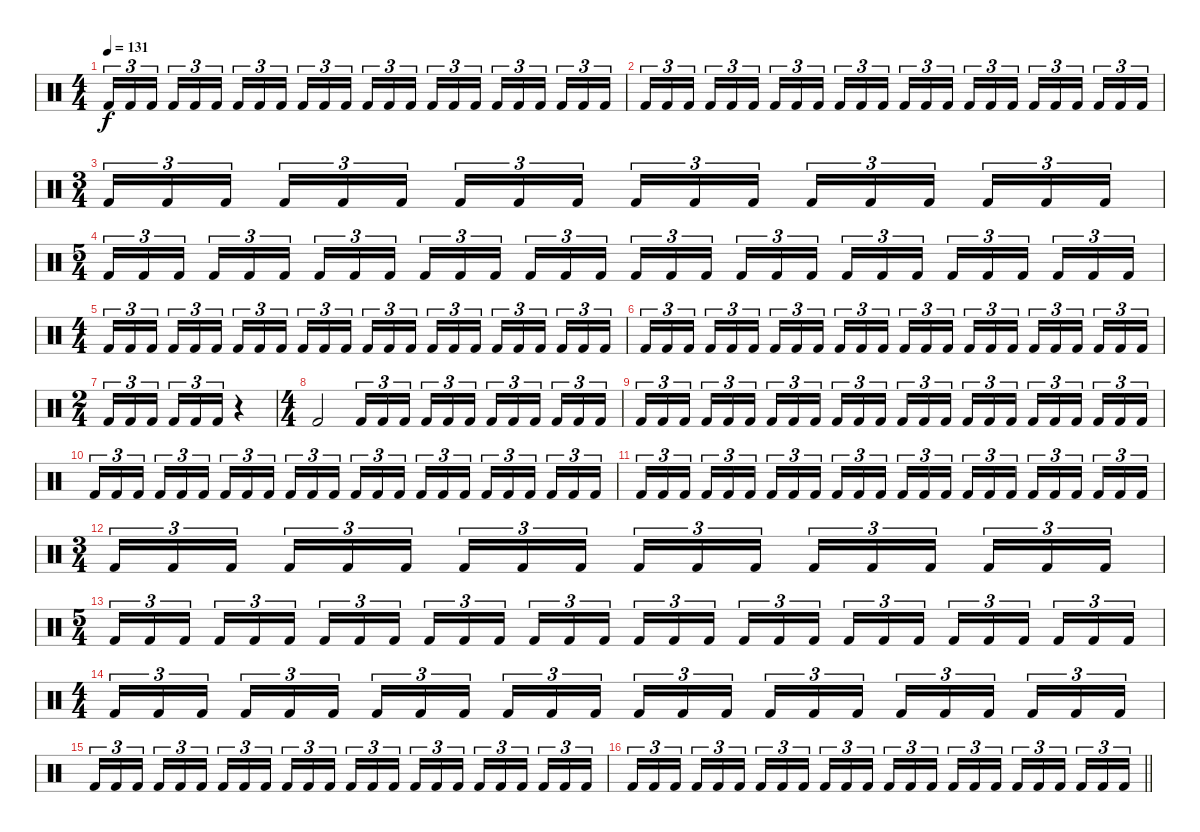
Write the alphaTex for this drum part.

\track "" {instrument percussion}
\staff {score}
\articulation defaults
\ts (4 4)
\tempo 131
\clef neutral
\ks c "Kick (hit) 2".16{tu (3 2) dy f} "Kick (hit) 2".16{tu (3 2)} "Kick (hit) 2".16{tu (3 2) beam splitsecondary} "Kick (hit) 2".16{tu (3 2)} "Kick (hit) 2".16{tu (3 2)} "Kick (hit) 2".16{tu (3 2)} "Kick (hit) 2".16{tu (3 2)} "Kick (hit) 2".16{tu (3 2)} "Kick (hit) 2".16{tu (3 2) beam splitsecondary} "Kick (hit) 2".16{tu (3 2)} "Kick (hit) 2".16{tu (3 2)} "Kick (hit) 2".16{tu (3 2)} "Kick (hit) 2".16{tu (3 2)} "Kick (hit) 2".16{tu (3 2)} "Kick (hit) 2".16{tu (3 2) beam splitsecondary} "Kick (hit) 2".16{tu (3 2)} "Kick (hit) 2".16{tu (3 2)} "Kick (hit) 2".16{tu (3 2)} "Kick (hit) 2".16{tu (3 2)} "Kick (hit) 2".16{tu (3 2)} "Kick (hit) 2".16{tu (3 2) beam splitsecondary} "Kick (hit) 2".16{tu (3 2)} "Kick (hit) 2".16{tu (3 2)} "Kick (hit) 2".16{tu (3 2)}
|
"Kick (hit) 2".16{tu (3 2)} "Kick (hit) 2".16{tu (3 2)} "Kick (hit) 2".16{tu (3 2) beam splitsecondary} "Kick (hit) 2".16{tu (3 2)} "Kick (hit) 2".16{tu (3 2)} "Kick (hit) 2".16{tu (3 2)} "Kick (hit) 2".16{tu (3 2)} "Kick (hit) 2".16{tu (3 2)} "Kick (hit) 2".16{tu (3 2) beam splitsecondary} "Kick (hit) 2".16{tu (3 2)} "Kick (hit) 2".16{tu (3 2)} "Kick (hit) 2".16{tu (3 2)} "Kick (hit) 2".16{tu (3 2)} "Kick (hit) 2".16{tu (3 2)} "Kick (hit) 2".16{tu (3 2) beam splitsecondary} "Kick (hit) 2".16{tu (3 2)} "Kick (hit) 2".16{tu (3 2)} "Kick (hit) 2".16{tu (3 2)} "Kick (hit) 2".16{tu (3 2)} "Kick (hit) 2".16{tu (3 2)} "Kick (hit) 2".16{tu (3 2) beam splitsecondary} "Kick (hit) 2".16{tu (3 2)} "Kick (hit) 2".16{tu (3 2)} "Kick (hit) 2".16{tu (3 2)} |
\ts (3 4)
"Kick (hit) 2".16{tu (3 2)} "Kick (hit) 2".16{tu (3 2)} "Kick (hit) 2".16{tu (3 2) beam splitsecondary} "Kick (hit) 2".16{tu (3 2)} "Kick (hit) 2".16{tu (3 2)} "Kick (hit) 2".16{tu (3 2)} "Kick (hit) 2".16{tu (3 2)} "Kick (hit) 2".16{tu (3 2)} "Kick (hit) 2".16{tu (3 2) beam splitsecondary} "Kick (hit) 2".16{tu (3 2)} "Kick (hit) 2".16{tu (3 2)} "Kick (hit) 2".16{tu (3 2)} "Kick (hit) 2".16{tu (3 2)} "Kick (hit) 2".16{tu (3 2)} "Kick (hit) 2".16{tu (3 2) beam splitsecondary} "Kick (hit) 2".16{tu (3 2)} "Kick (hit) 2".16{tu (3 2)} "Kick (hit) 2".16{tu (3 2)} |
\ts (5 4)
"Kick (hit) 2".16{tu (3 2)} "Kick (hit) 2".16{tu (3 2)} "Kick (hit) 2".16{tu (3 2) beam splitsecondary} "Kick (hit) 2".16{tu (3 2)} "Kick (hit) 2".16{tu (3 2)} "Kick (hit) 2".16{tu (3 2)} "Kick (hit) 2".16{tu (3 2)} "Kick (hit) 2".16{tu (3 2)} "Kick (hit) 2".16{tu (3 2) beam splitsecondary} "Kick (hit) 2".16{tu (3 2)} "Kick (hit) 2".16{tu (3 2)} "Kick (hit) 2".16{tu (3 2)} "Kick (hit) 2".16{tu (3 2)} "Kick (hit) 2".16{tu (3 2)} "Kick (hit) 2".16{tu (3 2) beam splitsecondary} "Kick (hit) 2".16{tu (3 2)} "Kick (hit) 2".16{tu (3 2)} "Kick (hit) 2".16{tu (3 2)} "Kick (hit) 2".16{tu (3 2)} "Kick (hit) 2".16{tu (3 2)} "Kick (hit) 2".16{tu (3 2) beam splitsecondary} "Kick (hit) 2".16{tu (3 2)} "Kick (hit) 2".16{tu (3 2)} "Kick (hit) 2".16{tu (3 2)} "Kick (hit) 2".16{tu (3 2)} "Kick (hit) 2".16{tu (3 2)} "Kick (hit) 2".16{tu (3 2) beam splitsecondary} "Kick (hit) 2".16{tu (3 2)} "Kick (hit) 2".16{tu (3 2)} "Kick (hit) 2".16{tu (3 2)} |
\ts (4 4)
"Kick (hit) 2".16{tu (3 2)} "Kick (hit) 2".16{tu (3 2)} "Kick (hit) 2".16{tu (3 2) beam splitsecondary} "Kick (hit) 2".16{tu (3 2)} "Kick (hit) 2".16{tu (3 2)} "Kick (hit) 2".16{tu (3 2)} "Kick (hit) 2".16{tu (3 2)} "Kick (hit) 2".16{tu (3 2)} "Kick (hit) 2".16{tu (3 2) beam splitsecondary} "Kick (hit) 2".16{tu (3 2)} "Kick (hit) 2".16{tu (3 2)} "Kick (hit) 2".16{tu (3 2)} "Kick (hit) 2".16{tu (3 2)} "Kick (hit) 2".16{tu (3 2)} "Kick (hit) 2".16{tu (3 2) beam splitsecondary} "Kick (hit) 2".16{tu (3 2)} "Kick (hit) 2".16{tu (3 2)} "Kick (hit) 2".16{tu (3 2)} "Kick (hit) 2".16{tu (3 2)} "Kick (hit) 2".16{tu (3 2)} "Kick (hit) 2".16{tu (3 2) beam splitsecondary} "Kick (hit) 2".16{tu (3 2)} "Kick (hit) 2".16{tu (3 2)} "Kick (hit) 2".16{tu (3 2)} |
"Kick (hit) 2".16{tu (3 2)} "Kick (hit) 2".16{tu (3 2)} "Kick (hit) 2".16{tu (3 2) beam splitsecondary} "Kick (hit) 2".16{tu (3 2)} "Kick (hit) 2".16{tu (3 2)} "Kick (hit) 2".16{tu (3 2)} "Kick (hit) 2".16{tu (3 2)} "Kick (hit) 2".16{tu (3 2)} "Kick (hit) 2".16{tu (3 2) beam splitsecondary} "Kick (hit) 2".16{tu (3 2)} "Kick (hit) 2".16{tu (3 2)} "Kick (hit) 2".16{tu (3 2)} "Kick (hit) 2".16{tu (3 2)} "Kick (hit) 2".16{tu (3 2)} "Kick (hit) 2".16{tu (3 2) beam splitsecondary} "Kick (hit) 2".16{tu (3 2)} "Kick (hit) 2".16{tu (3 2)} "Kick (hit) 2".16{tu (3 2)} "Kick (hit) 2".16{tu (3 2)} "Kick (hit) 2".16{tu (3 2)} "Kick (hit) 2".16{tu (3 2) beam splitsecondary} "Kick (hit) 2".16{tu (3 2)} "Kick (hit) 2".16{tu (3 2)} "Kick (hit) 2".16{tu (3 2)} |
\ts (2 4)
"Kick (hit) 2".16{tu (3 2)} "Kick (hit) 2".16{tu (3 2)} "Kick (hit) 2".16{tu (3 2) beam splitsecondary} "Kick (hit) 2".16{tu (3 2)} "Kick (hit) 2".16{tu (3 2)} "Kick (hit) 2".16{tu (3 2)} r.4 |
\ts (4 4)
"Kick (hit) 2".2 "Kick (hit) 2".16{tu (3 2)} "Kick (hit) 2".16{tu (3 2)} "Kick (hit) 2".16{tu (3 2) beam splitsecondary} "Kick (hit) 2".16{tu (3 2)} "Kick (hit) 2".16{tu (3 2)} "Kick (hit) 2".16{tu (3 2)} "Kick (hit) 2".16{tu (3 2)} "Kick (hit) 2".16{tu (3 2)} "Kick (hit) 2".16{tu (3 2) beam splitsecondary} "Kick (hit) 2".16{tu (3 2)} "Kick (hit) 2".16{tu (3 2)} "Kick (hit) 2".16{tu (3 2)} |
"Kick (hit) 2".16{tu (3 2)} "Kick (hit) 2".16{tu (3 2)} "Kick (hit) 2".16{tu (3 2) beam splitsecondary} "Kick (hit) 2".16{tu (3 2)} "Kick (hit) 2".16{tu (3 2)} "Kick (hit) 2".16{tu (3 2)} "Kick (hit) 2".16{tu (3 2)} "Kick (hit) 2".16{tu (3 2)} "Kick (hit) 2".16{tu (3 2) beam splitsecondary} "Kick (hit) 2".16{tu (3 2)} "Kick (hit) 2".16{tu (3 2)} "Kick (hit) 2".16{tu (3 2)} "Kick (hit) 2".16{tu (3 2)} "Kick (hit) 2".16{tu (3 2)} "Kick (hit) 2".16{tu (3 2) beam splitsecondary} "Kick (hit) 2".16{tu (3 2)} "Kick (hit) 2".16{tu (3 2)} "Kick (hit) 2".16{tu (3 2)} "Kick (hit) 2".16{tu (3 2)} "Kick (hit) 2".16{tu (3 2)} "Kick (hit) 2".16{tu (3 2) beam splitsecondary} "Kick (hit) 2".16{tu (3 2)} "Kick (hit) 2".16{tu (3 2)} "Kick (hit) 2".16{tu (3 2)} |
"Kick (hit) 2".16{tu (3 2)} "Kick (hit) 2".16{tu (3 2)} "Kick (hit) 2".16{tu (3 2) beam splitsecondary} "Kick (hit) 2".16{tu (3 2)} "Kick (hit) 2".16{tu (3 2)} "Kick (hit) 2".16{tu (3 2)} "Kick (hit) 2".16{tu (3 2)} "Kick (hit) 2".16{tu (3 2)} "Kick (hit) 2".16{tu (3 2) beam splitsecondary} "Kick (hit) 2".16{tu (3 2)} "Kick (hit) 2".16{tu (3 2)} "Kick (hit) 2".16{tu (3 2)} "Kick (hit) 2".16{tu (3 2)} "Kick (hit) 2".16{tu (3 2)} "Kick (hit) 2".16{tu (3 2) beam splitsecondary} "Kick (hit) 2".16{tu (3 2)} "Kick (hit) 2".16{tu (3 2)} "Kick (hit) 2".16{tu (3 2)} "Kick (hit) 2".16{tu (3 2)} "Kick (hit) 2".16{tu (3 2)} "Kick (hit) 2".16{tu (3 2) beam splitsecondary} "Kick (hit) 2".16{tu (3 2)} "Kick (hit) 2".16{tu (3 2)} "Kick (hit) 2".16{tu (3 2)} |
"Kick (hit) 2".16{tu (3 2)} "Kick (hit) 2".16{tu (3 2)} "Kick (hit) 2".16{tu (3 2) beam splitsecondary} "Kick (hit) 2".16{tu (3 2)} "Kick (hit) 2".16{tu (3 2)} "Kick (hit) 2".16{tu (3 2)} "Kick (hit) 2".16{tu (3 2)} "Kick (hit) 2".16{tu (3 2)} "Kick (hit) 2".16{tu (3 2) beam splitsecondary} "Kick (hit) 2".16{tu (3 2)} "Kick (hit) 2".16{tu (3 2)} "Kick (hit) 2".16{tu (3 2)} "Kick (hit) 2".16{tu (3 2)} "Kick (hit) 2".16{tu (3 2)} "Kick (hit) 2".16{tu (3 2) beam splitsecondary} "Kick (hit) 2".16{tu (3 2)} "Kick (hit) 2".16{tu (3 2)} "Kick (hit) 2".16{tu (3 2)} "Kick (hit) 2".16{tu (3 2)} "Kick (hit) 2".16{tu (3 2)} "Kick (hit) 2".16{tu (3 2) beam splitsecondary} "Kick (hit) 2".16{tu (3 2)} "Kick (hit) 2".16{tu (3 2)} "Kick (hit) 2".16{tu (3 2)} |
\ts (3 4)
"Kick (hit) 2".16{tu (3 2)} "Kick (hit) 2".16{tu (3 2)} "Kick (hit) 2".16{tu (3 2) beam splitsecondary} "Kick (hit) 2".16{tu (3 2)} "Kick (hit) 2".16{tu (3 2)} "Kick (hit) 2".16{tu (3 2)} "Kick (hit) 2".16{tu (3 2)} "Kick (hit) 2".16{tu (3 2)} "Kick (hit) 2".16{tu (3 2) beam splitsecondary} "Kick (hit) 2".16{tu (3 2)} "Kick (hit) 2".16{tu (3 2)} "Kick (hit) 2".16{tu (3 2)} "Kick (hit) 2".16{tu (3 2)} "Kick (hit) 2".16{tu (3 2)} "Kick (hit) 2".16{tu (3 2) beam splitsecondary} "Kick (hit) 2".16{tu (3 2)} "Kick (hit) 2".16{tu (3 2)} "Kick (hit) 2".16{tu (3 2)} |
\ts (5 4)
"Kick (hit) 2".16{tu (3 2)} "Kick (hit) 2".16{tu (3 2)} "Kick (hit) 2".16{tu (3 2) beam splitsecondary} "Kick (hit) 2".16{tu (3 2)} "Kick (hit) 2".16{tu (3 2)} "Kick (hit) 2".16{tu (3 2)} "Kick (hit) 2".16{tu (3 2)} "Kick (hit) 2".16{tu (3 2)} "Kick (hit) 2".16{tu (3 2) beam splitsecondary} "Kick (hit) 2".16{tu (3 2)} "Kick (hit) 2".16{tu (3 2)} "Kick (hit) 2".16{tu (3 2)} "Kick (hit) 2".16{tu (3 2)} "Kick (hit) 2".16{tu (3 2)} "Kick (hit) 2".16{tu (3 2) beam splitsecondary} "Kick (hit) 2".16{tu (3 2)} "Kick (hit) 2".16{tu (3 2)} "Kick (hit) 2".16{tu (3 2)} "Kick (hit) 2".16{tu (3 2)} "Kick (hit) 2".16{tu (3 2)} "Kick (hit) 2".16{tu (3 2) beam splitsecondary} "Kick (hit) 2".16{tu (3 2)} "Kick (hit) 2".16{tu (3 2)} "Kick (hit) 2".16{tu (3 2)} "Kick (hit) 2".16{tu (3 2)} "Kick (hit) 2".16{tu (3 2)} "Kick (hit) 2".16{tu (3 2) beam splitsecondary} "Kick (hit) 2".16{tu (3 2)} "Kick (hit) 2".16{tu (3 2)} "Kick (hit) 2".16{tu (3 2)} |
\ts (4 4)
"Kick (hit) 2".16{tu (3 2)} "Kick (hit) 2".16{tu (3 2)} "Kick (hit) 2".16{tu (3 2) beam splitsecondary} "Kick (hit) 2".16{tu (3 2)} "Kick (hit) 2".16{tu (3 2)} "Kick (hit) 2".16{tu (3 2)} "Kick (hit) 2".16{tu (3 2)} "Kick (hit) 2".16{tu (3 2)} "Kick (hit) 2".16{tu (3 2) beam splitsecondary} "Kick (hit) 2".16{tu (3 2)} "Kick (hit) 2".16{tu (3 2)} "Kick (hit) 2".16{tu (3 2)} "Kick (hit) 2".16{tu (3 2)} "Kick (hit) 2".16{tu (3 2)} "Kick (hit) 2".16{tu (3 2) beam splitsecondary} "Kick (hit) 2".16{tu (3 2)} "Kick (hit) 2".16{tu (3 2)} "Kick (hit) 2".16{tu (3 2)} "Kick (hit) 2".16{tu (3 2)} "Kick (hit) 2".16{tu (3 2)} "Kick (hit) 2".16{tu (3 2) beam splitsecondary} "Kick (hit) 2".16{tu (3 2)} "Kick (hit) 2".16{tu (3 2)} "Kick (hit) 2".16{tu (3 2)} |
"Kick (hit) 2".16{tu (3 2)} "Kick (hit) 2".16{tu (3 2)} "Kick (hit) 2".16{tu (3 2) beam splitsecondary} "Kick (hit) 2".16{tu (3 2)} "Kick (hit) 2".16{tu (3 2)} "Kick (hit) 2".16{tu (3 2)} "Kick (hit) 2".16{tu (3 2)} "Kick (hit) 2".16{tu (3 2)} "Kick (hit) 2".16{tu (3 2) beam splitsecondary} "Kick (hit) 2".16{tu (3 2)} "Kick (hit) 2".16{tu (3 2)} "Kick (hit) 2".16{tu (3 2)} "Kick (hit) 2".16{tu (3 2)} "Kick (hit) 2".16{tu (3 2)} "Kick (hit) 2".16{tu (3 2) beam splitsecondary} "Kick (hit) 2".16{tu (3 2)} "Kick (hit) 2".16{tu (3 2)} "Kick (hit) 2".16{tu (3 2)} "Kick (hit) 2".16{tu (3 2)} "Kick (hit) 2".16{tu (3 2)} "Kick (hit) 2".16{tu (3 2) beam splitsecondary} "Kick (hit) 2".16{tu (3 2)} "Kick (hit) 2".16{tu (3 2)} "Kick (hit) 2".16{tu (3 2)} |
\barLineRight lightlight "Kick (hit) 2".16{tu (3 2)} "Kick (hit) 2".16{tu (3 2)} "Kick (hit) 2".16{tu (3 2) beam splitsecondary} "Kick (hit) 2".16{tu (3 2)} "Kick (hit) 2".16{tu (3 2)} "Kick (hit) 2".16{tu (3 2)} "Kick (hit) 2".16{tu (3 2)} "Kick (hit) 2".16{tu (3 2)} "Kick (hit) 2".16{tu (3 2) beam splitsecondary} "Kick (hit) 2".16{tu (3 2)} "Kick (hit) 2".16{tu (3 2)} "Kick (hit) 2".16{tu (3 2)} "Kick (hit) 2".16{tu (3 2)} "Kick (hit) 2".16{tu (3 2)} "Kick (hit) 2".16{tu (3 2) beam splitsecondary} "Kick (hit) 2".16{tu (3 2)} "Kick (hit) 2".16{tu (3 2)} "Kick (hit) 2".16{tu (3 2)} "Kick (hit) 2".16{tu (3 2)} "Kick (hit) 2".16{tu (3 2)} "Kick (hit) 2".16{tu (3 2) beam splitsecondary} "Kick (hit) 2".16{tu (3 2)} "Kick (hit) 2".16{tu (3 2)} "Kick (hit) 2".16{tu (3 2)}
